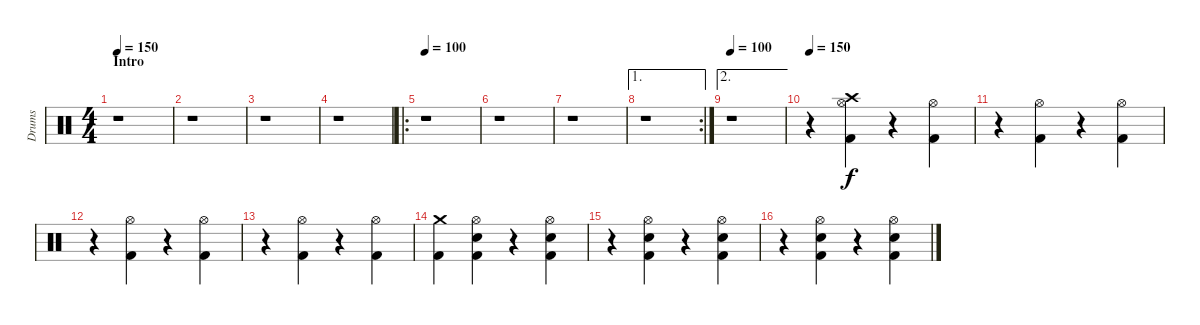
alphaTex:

\track ("Drums" "Drums") {instrument percussion}
\staff {score}
\articulation defaults
\ts (4 4)
\section ("" "Intro")
\tempo 150
\tempo 100
\tempo 150
\clef neutral
\ks c
r.1{dy f} |
r.1 |
r.1 |
r.1 |
\ro
\tempo 100
r.1 |
r.1 |
r.1 |
\ae 1
\rc 2
r.1 |
\ae 2
\tempo 100
r.1 |
\tempo 150
r.4 ("Hi-Hat (open)" "Crash high (hit)" "Kick (hit) 2").4 r.4 ("Hi-Hat (open)" "Kick (hit) 2").4 |
r.4 ("Hi-Hat (open)" "Kick (hit) 2").4 r.4 ("Hi-Hat (open)" "Kick (hit) 2").4 |
r.4 ("Hi-Hat (open)" "Kick (hit) 2").4 r.4 ("Hi-Hat (open)" "Kick (hit) 2").4 |
r.4 ("Hi-Hat (open)" "Kick (hit) 2").4 r.4 ("Hi-Hat (open)" "Kick (hit) 2").4 |
("Crash medium (hit)" "Kick (hit) 2").4 ("Hi-Hat (open)" "Electric Snare (hit)" "Kick (hit) 2").4 r.4 ("Hi-Hat (open)" "Electric Snare (hit)" "Kick (hit) 2").4 |
r.4 ("Hi-Hat (open)" "Electric Snare (hit)" "Kick (hit) 2").4 r.4 ("Hi-Hat (open)" "Electric Snare (hit)" "Kick (hit) 2").4 |
r.4 ("Hi-Hat (open)" "Electric Snare (hit)" "Kick (hit) 2").4 r.4 ("Hi-Hat (open)" "Electric Snare (hit)" "Kick (hit) 2").4
